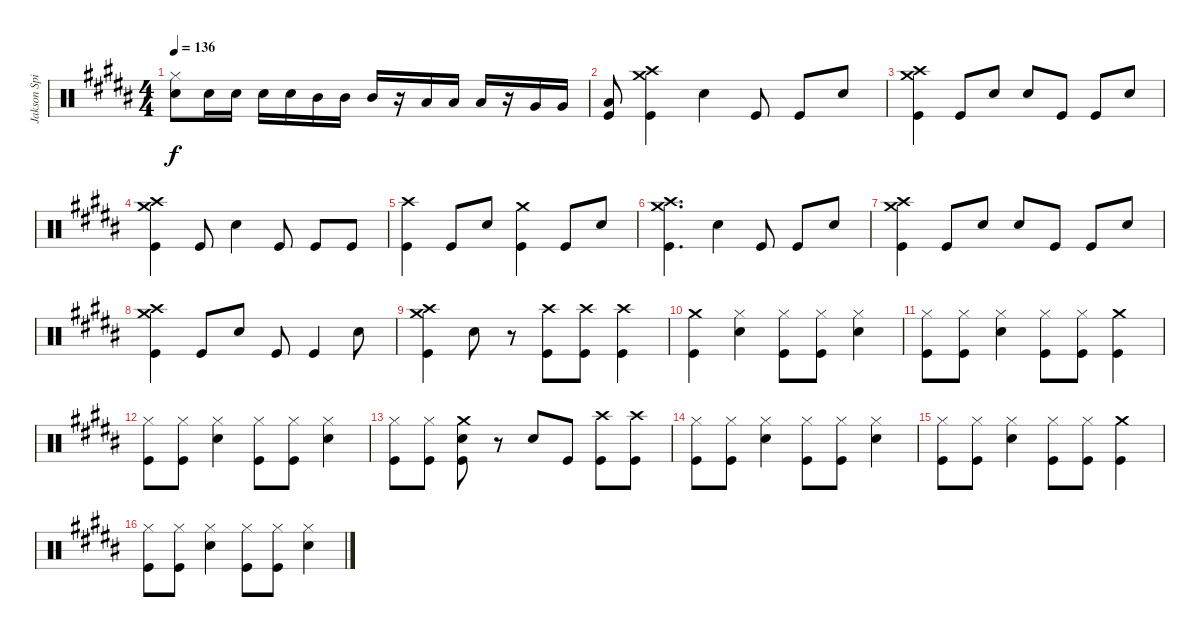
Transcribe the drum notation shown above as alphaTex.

\track ("Jakson Spires Drums" "Jakson Spi") {instrument percussion}
\staff {score}
\articulation defaults
\ts (4 4)
\tempo 136
\clef neutral
\ks b
("Hi-Hat (closed)"{t} "Snare (hit) 2"{t}).8{dy f} "Snare (hit) 2".16 "Snare (hit) 2".16 "Snare (hit) 2".16 "Snare (hit) 2".16 "Mid Tom (hit)".16 "Mid Tom (hit)".16 "Mid Tom (hit)".16 r.16 "Low Tom (hit)".16 "Low Tom (hit)".16 "Low Tom (hit)".16 r.16 "Very Low Tom (hit)".16 "Very Low Tom (hit)".16 |
("Low Floor Tom (hit)" "Kick (hit)").8 ("Crash high (hit)" "Crash medium (hit)" "Kick (hit)").4 "Snare (hit) 2".4 "Kick (hit)".8 "Kick (hit)".8 "Snare (hit) 2".8 |
("Crash high (hit)" "Crash medium (hit)" "Kick (hit)").4 "Kick (hit)".8 "Snare (hit) 2".8 "Snare (hit) 2".8 "Kick (hit)".8 "Kick (hit)".8 "Snare (hit) 2".8 |
("Crash high (hit)" "Crash medium (hit)" "Kick (hit)").4 "Kick (hit)".8 "Snare (hit) 2".4 "Kick (hit)".8 "Kick (hit)".8 "Kick (hit)".8 |
("Crash high (hit)" "Kick (hit)").4 "Kick (hit)".8 "Snare (hit) 2".8 ("Crash medium (hit)" "Kick (hit)").4 "Kick (hit)".8 "Snare (hit) 2".8 |
("Crash high (hit)" "Crash medium (hit)" "Kick (hit)").4{d} "Snare (hit) 2".4 "Kick (hit)".8 "Kick (hit)".8 "Snare (hit) 2".8 |
("Crash high (hit)" "Crash medium (hit)" "Kick (hit)").4 "Kick (hit)".8 "Snare (hit) 2".8 "Snare (hit) 2".8 "Kick (hit)".8 "Kick (hit)".8 "Snare (hit) 2".8 |
("Crash high (hit)" "Crash medium (hit)" "Kick (hit)").4 "Kick (hit)".8 "Snare (hit) 2".8 "Kick (hit)".8 "Kick (hit)".4 "Snare (hit) 2".8 |
("Crash high (hit)" "Crash medium (hit)" "Kick (hit)").4 "Snare (hit) 2".8 r.8 ("Crash high (hit)" "Kick (hit)").8 ("Crash high (hit)" "Kick (hit)").8 ("Crash high (hit)" "Kick (hit)").4 |
("Crash medium (hit)" "Kick (hit)").4 ("Hi-Hat (closed)" "Snare (hit) 2").4 ("Hi-Hat (closed)" "Kick (hit)").8 ("Hi-Hat (closed)" "Kick (hit)").8 ("Hi-Hat (closed)" "Snare (hit) 2").4 |
("Hi-Hat (closed)" "Kick (hit)").8 ("Hi-Hat (closed)" "Kick (hit)").8 ("Hi-Hat (closed)" "Snare (hit) 2").4 ("Hi-Hat (closed)" "Kick (hit)").8 ("Hi-Hat (closed)" "Kick (hit)").8 ("Crash medium (hit)" "Kick (hit)").4 |
("Hi-Hat (closed)" "Kick (hit)").8 ("Hi-Hat (closed)" "Kick (hit)").8 ("Hi-Hat (closed)" "Snare (hit) 2").4 ("Hi-Hat (closed)" "Kick (hit)").8 ("Hi-Hat (closed)" "Kick (hit)").8 ("Hi-Hat (closed)" "Snare (hit) 2").4 |
("Hi-Hat (closed)" "Kick (hit)").8 ("Hi-Hat (closed)" "Kick (hit)").8 ("Crash medium (hit)" "Snare (hit) 2" "Kick (hit)").8 r.8 "Snare (hit) 2".8 "Kick (hit)".8 ("Crash high (hit)" "Kick (hit)").8 ("Crash high (hit)" "Kick (hit)").8 |
("Hi-Hat (closed)" "Kick (hit)").8 ("Hi-Hat (closed)" "Kick (hit)").8 ("Hi-Hat (closed)" "Snare (hit) 2").4 ("Hi-Hat (closed)" "Kick (hit)").8 ("Hi-Hat (closed)" "Kick (hit)").8 ("Hi-Hat (closed)" "Snare (hit) 2").4 |
("Hi-Hat (closed)" "Kick (hit)").8 ("Hi-Hat (closed)" "Kick (hit)").8 ("Hi-Hat (closed)" "Snare (hit) 2").4 ("Hi-Hat (closed)" "Kick (hit)").8 ("Hi-Hat (closed)" "Kick (hit)").8 ("Crash medium (hit)" "Kick (hit)").4 |
("Hi-Hat (closed)" "Kick (hit)").8 ("Hi-Hat (closed)" "Kick (hit)").8 ("Hi-Hat (closed)" "Snare (hit) 2").4 ("Hi-Hat (closed)" "Kick (hit)").8 ("Hi-Hat (closed)" "Kick (hit)").8 ("Hi-Hat (closed)" "Snare (hit) 2").4
